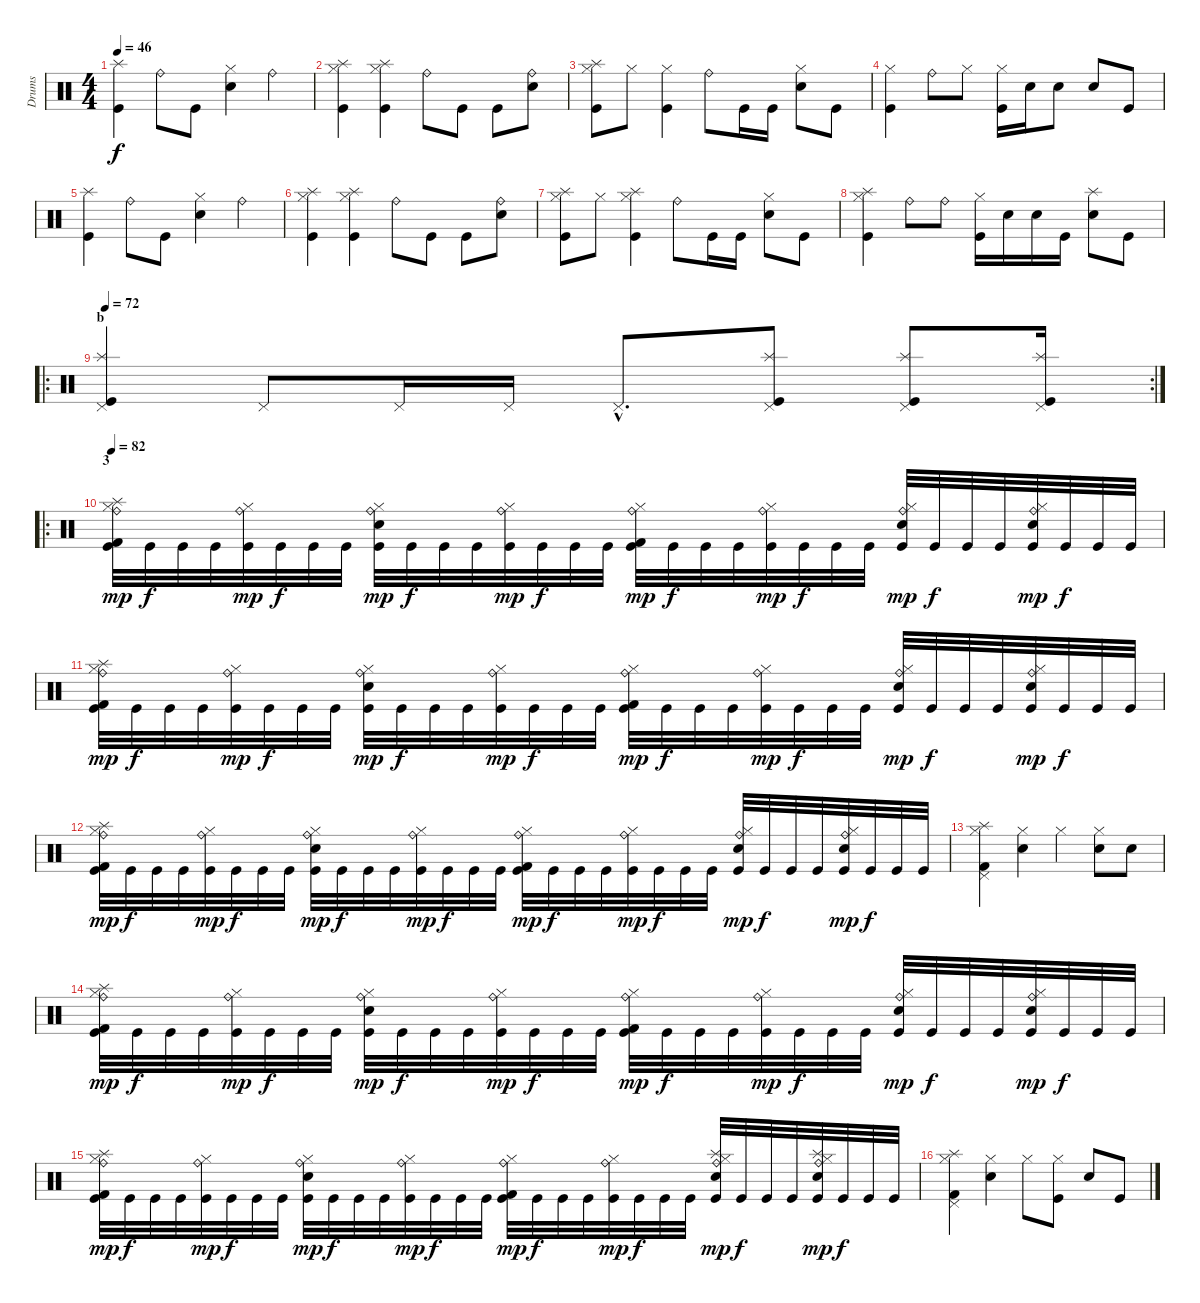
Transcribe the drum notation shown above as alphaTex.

\track ("Drums" "Drums") {instrument percussion}
\staff {score}
\articulation defaults
\ts (4 4)
\tempo 46
\clef neutral
\ks c
("Kick (hit)" "Splash (hit)").4{dy f} "Ride (bell)".8 "Kick (hit)".8 ("Hi-Hat (closed)" "Electric Snare (hit)").4 "Ride (bell)".4 |
("Hi-Hat (closed)" "Kick (hit)" "Splash (hit)").4 ("Hi-Hat (closed)" "Kick (hit)" "Splash (hit)").4 "Ride (bell)".8 "Kick (hit)".8 "Kick (hit)".8 ("Ride (bell)" "Electric Snare (hit)").8 |
("Hi-Hat (closed)" "Kick (hit)" "Splash (hit)").8 "Hi-Hat (closed)".8 ("Hi-Hat (closed)" "Kick (hit)").4 "Ride (bell)".8 "Kick (hit)".16 "Kick (hit)".16 ("Hi-Hat (closed)" "Electric Snare (hit)").8 "Kick (hit)".8 |
("Hi-Hat (closed)" "Kick (hit)").4 "Ride (bell)".8 "Hi-Hat (closed)".8 ("Hi-Hat (closed)" "Kick (hit)").16 "Electric Snare (hit)".16 "Electric Snare (hit)".8 "Electric Snare (hit)".8 "Kick (hit)".8 |
("Kick (hit)" "Splash (hit)").4 "Ride (bell)".8 "Kick (hit)".8 ("Hi-Hat (closed)" "Electric Snare (hit)").4 "Ride (bell)".4 |
("Hi-Hat (closed)" "Kick (hit)" "Splash (hit)").4 ("Hi-Hat (closed)" "Kick (hit)" "Splash (hit)").4 "Ride (bell)".8 "Kick (hit)".8 "Kick (hit)".8 ("Ride (bell)" "Electric Snare (hit)").8 |
("Hi-Hat (closed)" "Kick (hit)" "Splash (hit)").8 "Hi-Hat (closed)".8 ("Hi-Hat (closed)" "Kick (hit)" "Splash (hit)").4 "Ride (bell)".8 "Kick (hit)".16 "Kick (hit)".16 ("Hi-Hat (closed)" "Electric Snare (hit)").8 "Kick (hit)".8 |
("Hi-Hat (closed)" "Kick (hit)" "Splash (hit)").4 "Ride (bell)".8 "Ride (bell)".8 ("Hi-Hat (closed)" "Kick (hit)").16 "Electric Snare (hit)".16 "Electric Snare (hit)".16 "Kick (hit)".16 ("Splash (hit)" "Electric Snare (hit)").8 "Kick (hit)".8 |
\ro
\rc 2
\section ("" "b")
\tempo 72
("Pedal Hi-Hat (hit)" "Kick (hit)" "Splash (hit)").4 "Pedal Hi-Hat (hit)".8 "Pedal Hi-Hat (hit)".16 "Pedal Hi-Hat (hit)".16 "Pedal Hi-Hat (hit)"{hac}.8{d} ("Pedal Hi-Hat (hit)" "Kick (hit)" "Splash (hit)").8 ("Pedal Hi-Hat (hit)" "Kick (hit)" "Splash (hit)").8 ("Pedal Hi-Hat (hit)" "Kick (hit)" "Splash (hit)").16 |
\ro
\section ("" "3")
\tempo 82
("Kick (hit)" "Kick (hit) 2" "Hi-Hat (closed)" "Splash (hit)" "Ride (bell)").32{dy mp} "Kick (hit)".32{dy f} "Kick (hit)".32 "Kick (hit)".32 ("Kick (hit)" "Hi-Hat (closed)" "Ride (bell)").32{dy mp} "Kick (hit)".32{dy f} "Kick (hit)".32 "Kick (hit)".32 ("Kick (hit)" "Electric Snare (hit)" "Hi-Hat (closed)" "Ride (bell)").32{dy mp} "Kick (hit)".32{dy f} "Kick (hit)".32 "Kick (hit)".32 ("Kick (hit)" "Hi-Hat (closed)" "Ride (bell)").32{dy mp} "Kick (hit)".32{dy f} "Kick (hit)".32 "Kick (hit)".32 ("Kick (hit)" "Kick (hit) 2" "Hi-Hat (closed)" "Ride (bell)").32{dy mp} "Kick (hit)".32{dy f} "Kick (hit)".32 "Kick (hit)".32 ("Kick (hit)" "Hi-Hat (closed)" "Ride (bell)").32{dy mp} "Kick (hit)".32{dy f} "Kick (hit)".32 "Kick (hit)".32 ("Kick (hit)" "Electric Snare (hit)" "Hi-Hat (closed)" "Ride (bell)").32{dy mp} "Kick (hit)".32{dy f} "Kick (hit)".32 "Kick (hit)".32 ("Kick (hit)" "Electric Snare (hit)" "Hi-Hat (closed)" "Ride (bell)").32{dy mp} "Kick (hit)".32{dy f} "Kick (hit)".32 "Kick (hit)".32 |
("Kick (hit)" "Kick (hit) 2" "Hi-Hat (closed)" "Splash (hit)" "Ride (bell)").32{dy mp} "Kick (hit)".32{dy f} "Kick (hit)".32 "Kick (hit)".32 ("Kick (hit)" "Hi-Hat (closed)" "Ride (bell)").32{dy mp} "Kick (hit)".32{dy f} "Kick (hit)".32 "Kick (hit)".32 ("Kick (hit)" "Electric Snare (hit)" "Hi-Hat (closed)" "Ride (bell)").32{dy mp} "Kick (hit)".32{dy f} "Kick (hit)".32 "Kick (hit)".32 ("Kick (hit)" "Hi-Hat (closed)" "Ride (bell)").32{dy mp} "Kick (hit)".32{dy f} "Kick (hit)".32 "Kick (hit)".32 ("Kick (hit)" "Kick (hit) 2" "Hi-Hat (closed)" "Ride (bell)").32{dy mp} "Kick (hit)".32{dy f} "Kick (hit)".32 "Kick (hit)".32 ("Kick (hit)" "Hi-Hat (closed)" "Ride (bell)").32{dy mp} "Kick (hit)".32{dy f} "Kick (hit)".32 "Kick (hit)".32 ("Kick (hit)" "Electric Snare (hit)" "Hi-Hat (closed)" "Ride (bell)").32{dy mp} "Kick (hit)".32{dy f} "Kick (hit)".32 "Kick (hit)".32 ("Kick (hit)" "Electric Snare (hit)" "Hi-Hat (closed)" "Ride (bell)").32{dy mp} "Kick (hit)".32{dy f} "Kick (hit)".32 "Kick (hit)".32 |
("Kick (hit)" "Kick (hit) 2" "Hi-Hat (closed)" "Splash (hit)" "Ride (bell)").32{dy mp} "Kick (hit)".32{dy f} "Kick (hit)".32 "Kick (hit)".32 ("Kick (hit)" "Hi-Hat (closed)" "Ride (bell)").32{dy mp} "Kick (hit)".32{dy f} "Kick (hit)".32 "Kick (hit)".32 ("Kick (hit)" "Electric Snare (hit)" "Hi-Hat (closed)" "Ride (bell)").32{dy mp} "Kick (hit)".32{dy f} "Kick (hit)".32 "Kick (hit)".32 ("Kick (hit)" "Hi-Hat (closed)" "Ride (bell)").32{dy mp} "Kick (hit)".32{dy f} "Kick (hit)".32 "Kick (hit)".32 ("Kick (hit)" "Kick (hit) 2" "Hi-Hat (closed)" "Ride (bell)").32{dy mp} "Kick (hit)".32{dy f} "Kick (hit)".32 "Kick (hit)".32 ("Kick (hit)" "Hi-Hat (closed)" "Ride (bell)").32{dy mp} "Kick (hit)".32{dy f} "Kick (hit)".32 "Kick (hit)".32 ("Kick (hit)" "Electric Snare (hit)" "Hi-Hat (closed)" "Ride (bell)").32{dy mp} "Kick (hit)".32{dy f} "Kick (hit)".32 "Kick (hit)".32 ("Kick (hit)" "Electric Snare (hit)" "Hi-Hat (closed)" "Ride (bell)").32{dy mp} "Kick (hit)".32{dy f} "Kick (hit)".32 "Kick (hit)".32 |
("Kick (hit) 2" "Hi-Hat (closed)" "Pedal Hi-Hat (hit)" "Splash (hit)").4 ("Electric Snare (hit)" "Hi-Hat (closed)").4 "Hi-Hat (closed)".4 ("Electric Snare (hit)" "Hi-Hat (closed)").8 "Electric Snare (hit)".8 |
("Kick (hit)" "Kick (hit) 2" "Hi-Hat (closed)" "Splash (hit)" "Ride (bell)").32{dy mp} "Kick (hit)".32{dy f} "Kick (hit)".32 "Kick (hit)".32 ("Kick (hit)" "Hi-Hat (closed)" "Ride (bell)").32{dy mp} "Kick (hit)".32{dy f} "Kick (hit)".32 "Kick (hit)".32 ("Kick (hit)" "Electric Snare (hit)" "Hi-Hat (closed)" "Ride (bell)").32{dy mp} "Kick (hit)".32{dy f} "Kick (hit)".32 "Kick (hit)".32 ("Kick (hit)" "Hi-Hat (closed)" "Ride (bell)").32{dy mp} "Kick (hit)".32{dy f} "Kick (hit)".32 "Kick (hit)".32 ("Kick (hit)" "Kick (hit) 2" "Hi-Hat (closed)" "Ride (bell)").32{dy mp} "Kick (hit)".32{dy f} "Kick (hit)".32 "Kick (hit)".32 ("Kick (hit)" "Hi-Hat (closed)" "Ride (bell)").32{dy mp} "Kick (hit)".32{dy f} "Kick (hit)".32 "Kick (hit)".32 ("Kick (hit)" "Electric Snare (hit)" "Hi-Hat (closed)" "Ride (bell)").32{dy mp} "Kick (hit)".32{dy f} "Kick (hit)".32 "Kick (hit)".32 ("Kick (hit)" "Electric Snare (hit)" "Hi-Hat (closed)" "Ride (bell)").32{dy mp} "Kick (hit)".32{dy f} "Kick (hit)".32 "Kick (hit)".32 |
("Kick (hit)" "Kick (hit) 2" "Hi-Hat (closed)" "Splash (hit)" "Ride (bell)").32{dy mp} "Kick (hit)".32{dy f} "Kick (hit)".32 "Kick (hit)".32 ("Kick (hit)" "Hi-Hat (closed)" "Ride (bell)").32{dy mp} "Kick (hit)".32{dy f} "Kick (hit)".32 "Kick (hit)".32 ("Kick (hit)" "Electric Snare (hit)" "Hi-Hat (closed)" "Ride (bell)").32{dy mp} "Kick (hit)".32{dy f} "Kick (hit)".32 "Kick (hit)".32 ("Kick (hit)" "Hi-Hat (closed)" "Ride (bell)").32{dy mp} "Kick (hit)".32{dy f} "Kick (hit)".32 "Kick (hit)".32 ("Kick (hit)" "Kick (hit) 2" "Hi-Hat (closed)" "Ride (bell)").32{dy mp} "Kick (hit)".32{dy f} "Kick (hit)".32 "Kick (hit)".32 ("Kick (hit)" "Hi-Hat (closed)" "Ride (bell)").32{dy mp} "Kick (hit)".32{dy f} "Kick (hit)".32 "Kick (hit)".32 ("Kick (hit)" "Electric Snare (hit)" "Hi-Hat (closed)" "Splash (hit)" "Ride (bell)").32{dy mp} "Kick (hit)".32{dy f} "Kick (hit)".32 "Kick (hit)".32 ("Kick (hit)" "Electric Snare (hit)" "Hi-Hat (closed)" "Splash (hit)" "Ride (bell)").32{dy mp} "Kick (hit)".32{dy f} "Kick (hit)".32 "Kick (hit)".32 |
("Splash (hit)" "Kick (hit) 2" "Hi-Hat (closed)" "Pedal Hi-Hat (hit)").4 ("Electric Snare (hit)" "Hi-Hat (closed)").4 "Hi-Hat (closed)".8 ("Kick (hit)" "Hi-Hat (closed)").8 "Electric Snare (hit)".8 "Kick (hit)".8
